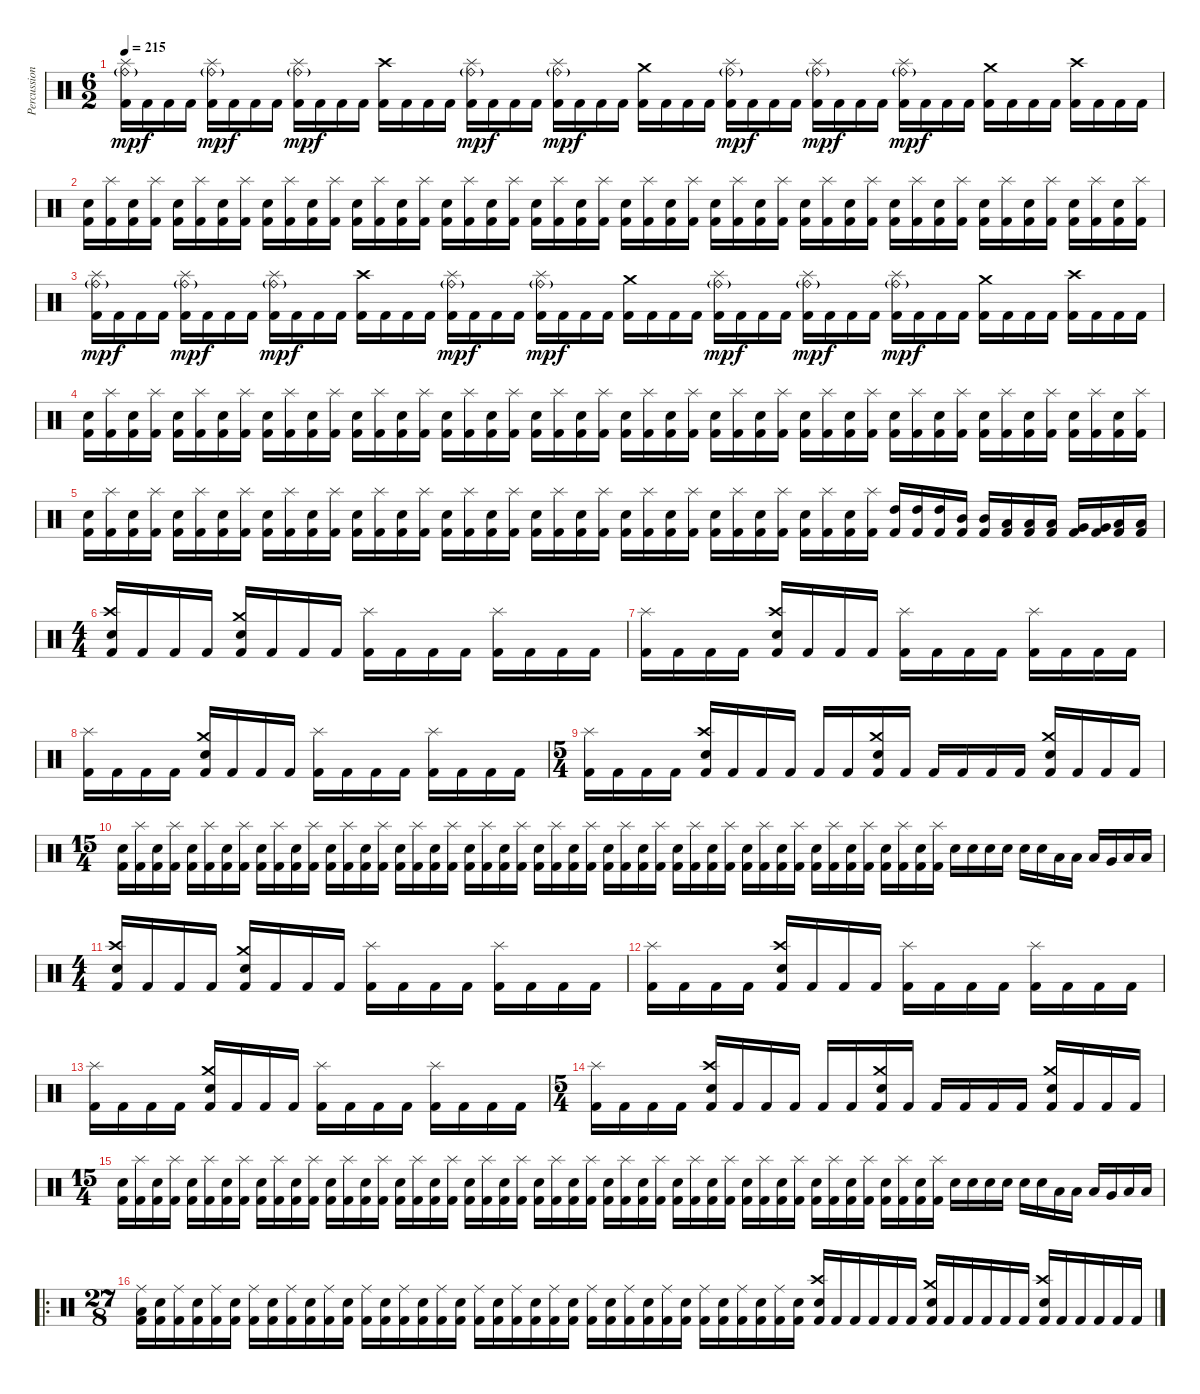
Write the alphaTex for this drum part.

\track ("Percussions" "Percussion") {instrument percussion}
\staff {score}
\articulation defaults
\ts (6 2)
\tempo 215
\clef neutral
\ks c
("Splash (hit)" "Ride (bell)"{g} "Kick (hit) 2").16{dy mp} "Kick (hit) 2".16{dy f} "Kick (hit) 2".16 "Kick (hit) 2".16 ("Splash (hit)" "Ride (bell)"{g} "Kick (hit) 2").16{dy mp} "Kick (hit) 2".16{dy f} "Kick (hit) 2".16 "Kick (hit) 2".16 ("Splash (hit)" "Ride (bell)"{g} "Kick (hit) 2").16{dy mp} "Kick (hit) 2".16{dy f} "Kick (hit) 2".16 "Kick (hit) 2".16 ("Crash high (hit)" "Kick (hit) 2").16 "Kick (hit) 2".16 "Kick (hit) 2".16 "Kick (hit) 2".16 ("Splash (hit)" "Ride (bell)"{g} "Kick (hit) 2").16{dy mp} "Kick (hit) 2".16{dy f} "Kick (hit) 2".16 "Kick (hit) 2".16 ("Splash (hit)" "Ride (bell)"{g} "Kick (hit) 2").16{dy mp} "Kick (hit) 2".16{dy f} "Kick (hit) 2".16 "Kick (hit) 2".16 ("Crash medium (hit)" "Kick (hit) 2").16 "Kick (hit) 2".16 "Kick (hit) 2".16 "Kick (hit) 2".16 ("Splash (hit)" "Ride (bell)"{g} "Kick (hit) 2").16{dy mp} "Kick (hit) 2".16{dy f} "Kick (hit) 2".16 "Kick (hit) 2".16 ("Splash (hit)" "Ride (bell)"{g} "Kick (hit) 2").16{dy mp} "Kick (hit) 2".16{dy f} "Kick (hit) 2".16 "Kick (hit) 2".16 ("Splash (hit)" "Ride (bell)"{g} "Kick (hit) 2").16{dy mp} "Kick (hit) 2".16{dy f} "Kick (hit) 2".16 "Kick (hit) 2".16 ("Crash medium (hit)" "Kick (hit) 2").16 "Kick (hit) 2".16 "Kick (hit) 2".16 "Kick (hit) 2".16 ("Crash high (hit)" "Kick (hit) 2").16 "Kick (hit) 2".16 "Kick (hit) 2".16 "Kick (hit) 2".16 |
("Electric Snare (hit)" "Kick (hit) 2").16 ("Splash (hit)" "Kick (hit) 2").16 ("Electric Snare (hit)" "Kick (hit) 2").16 ("Splash (hit)" "Kick (hit) 2").16 ("Electric Snare (hit)" "Kick (hit) 2").16 ("Splash (hit)" "Kick (hit) 2").16 ("Electric Snare (hit)" "Kick (hit) 2").16 ("Splash (hit)" "Kick (hit) 2").16 ("Electric Snare (hit)" "Kick (hit) 2").16 ("Splash (hit)" "Kick (hit) 2").16 ("Electric Snare (hit)" "Kick (hit) 2").16 ("Splash (hit)" "Kick (hit) 2").16 ("Electric Snare (hit)" "Kick (hit) 2").16 ("Splash (hit)" "Kick (hit) 2").16 ("Electric Snare (hit)" "Kick (hit) 2").16 ("Splash (hit)" "Kick (hit) 2").16 ("Electric Snare (hit)" "Kick (hit) 2").16 ("Splash (hit)" "Kick (hit) 2").16 ("Electric Snare (hit)" "Kick (hit) 2").16 ("Splash (hit)" "Kick (hit) 2").16 ("Electric Snare (hit)" "Kick (hit) 2").16 ("Splash (hit)" "Kick (hit) 2").16 ("Electric Snare (hit)" "Kick (hit) 2").16 ("Splash (hit)" "Kick (hit) 2").16 ("Electric Snare (hit)" "Kick (hit) 2").16 ("Splash (hit)" "Kick (hit) 2").16 ("Electric Snare (hit)" "Kick (hit) 2").16 ("Splash (hit)" "Kick (hit) 2").16 ("Electric Snare (hit)" "Kick (hit) 2").16 ("Splash (hit)" "Kick (hit) 2").16 ("Electric Snare (hit)" "Kick (hit) 2").16 ("Splash (hit)" "Kick (hit) 2").16 ("Electric Snare (hit)" "Kick (hit) 2").16 ("Splash (hit)" "Kick (hit) 2").16 ("Electric Snare (hit)" "Kick (hit) 2").16 ("Splash (hit)" "Kick (hit) 2").16 ("Electric Snare (hit)" "Kick (hit) 2").16 ("Splash (hit)" "Kick (hit) 2").16 ("Electric Snare (hit)" "Kick (hit) 2").16 ("Splash (hit)" "Kick (hit) 2").16 ("Electric Snare (hit)" "Kick (hit) 2").16 ("Splash (hit)" "Kick (hit) 2").16 ("Electric Snare (hit)" "Kick (hit) 2").16 ("Splash (hit)" "Kick (hit) 2").16 ("Electric Snare (hit)" "Kick (hit) 2").16 ("Splash (hit)" "Kick (hit) 2").16 ("Electric Snare (hit)" "Kick (hit) 2").16 ("Splash (hit)" "Kick (hit) 2").16 |
("Splash (hit)" "Ride (bell)"{g} "Kick (hit) 2").16{dy mp} "Kick (hit) 2".16{dy f} "Kick (hit) 2".16 "Kick (hit) 2".16 ("Splash (hit)" "Ride (bell)"{g} "Kick (hit) 2").16{dy mp} "Kick (hit) 2".16{dy f} "Kick (hit) 2".16 "Kick (hit) 2".16 ("Splash (hit)" "Ride (bell)"{g} "Kick (hit) 2").16{dy mp} "Kick (hit) 2".16{dy f} "Kick (hit) 2".16 "Kick (hit) 2".16 ("Crash high (hit)" "Kick (hit) 2").16 "Kick (hit) 2".16 "Kick (hit) 2".16 "Kick (hit) 2".16 ("Splash (hit)" "Ride (bell)"{g} "Kick (hit) 2").16{dy mp} "Kick (hit) 2".16{dy f} "Kick (hit) 2".16 "Kick (hit) 2".16 ("Splash (hit)" "Ride (bell)"{g} "Kick (hit) 2").16{dy mp} "Kick (hit) 2".16{dy f} "Kick (hit) 2".16 "Kick (hit) 2".16 ("Crash medium (hit)" "Kick (hit) 2").16 "Kick (hit) 2".16 "Kick (hit) 2".16 "Kick (hit) 2".16 ("Splash (hit)" "Ride (bell)"{g} "Kick (hit) 2").16{dy mp} "Kick (hit) 2".16{dy f} "Kick (hit) 2".16 "Kick (hit) 2".16 ("Splash (hit)" "Ride (bell)"{g} "Kick (hit) 2").16{dy mp} "Kick (hit) 2".16{dy f} "Kick (hit) 2".16 "Kick (hit) 2".16 ("Splash (hit)" "Ride (bell)"{g} "Kick (hit) 2").16{dy mp} "Kick (hit) 2".16{dy f} "Kick (hit) 2".16 "Kick (hit) 2".16 ("Crash medium (hit)" "Kick (hit) 2").16 "Kick (hit) 2".16 "Kick (hit) 2".16 "Kick (hit) 2".16 ("Crash high (hit)" "Kick (hit) 2").16 "Kick (hit) 2".16 "Kick (hit) 2".16 "Kick (hit) 2".16 |
("Electric Snare (hit)" "Kick (hit) 2").16 ("Splash (hit)" "Kick (hit) 2").16 ("Electric Snare (hit)" "Kick (hit) 2").16 ("Splash (hit)" "Kick (hit) 2").16 ("Electric Snare (hit)" "Kick (hit) 2").16 ("Splash (hit)" "Kick (hit) 2").16 ("Electric Snare (hit)" "Kick (hit) 2").16 ("Splash (hit)" "Kick (hit) 2").16 ("Electric Snare (hit)" "Kick (hit) 2").16 ("Splash (hit)" "Kick (hit) 2").16 ("Electric Snare (hit)" "Kick (hit) 2").16 ("Splash (hit)" "Kick (hit) 2").16 ("Electric Snare (hit)" "Kick (hit) 2").16 ("Splash (hit)" "Kick (hit) 2").16 ("Electric Snare (hit)" "Kick (hit) 2").16 ("Splash (hit)" "Kick (hit) 2").16 ("Electric Snare (hit)" "Kick (hit) 2").16 ("Splash (hit)" "Kick (hit) 2").16 ("Electric Snare (hit)" "Kick (hit) 2").16 ("Splash (hit)" "Kick (hit) 2").16 ("Electric Snare (hit)" "Kick (hit) 2").16 ("Splash (hit)" "Kick (hit) 2").16 ("Electric Snare (hit)" "Kick (hit) 2").16 ("Splash (hit)" "Kick (hit) 2").16 ("Electric Snare (hit)" "Kick (hit) 2").16 ("Splash (hit)" "Kick (hit) 2").16 ("Electric Snare (hit)" "Kick (hit) 2").16 ("Splash (hit)" "Kick (hit) 2").16 ("Electric Snare (hit)" "Kick (hit) 2").16 ("Splash (hit)" "Kick (hit) 2").16 ("Electric Snare (hit)" "Kick (hit) 2").16 ("Splash (hit)" "Kick (hit) 2").16 ("Electric Snare (hit)" "Kick (hit) 2").16 ("Splash (hit)" "Kick (hit) 2").16 ("Electric Snare (hit)" "Kick (hit) 2").16 ("Splash (hit)" "Kick (hit) 2").16 ("Electric Snare (hit)" "Kick (hit) 2").16 ("Splash (hit)" "Kick (hit) 2").16 ("Electric Snare (hit)" "Kick (hit) 2").16 ("Splash (hit)" "Kick (hit) 2").16 ("Electric Snare (hit)" "Kick (hit) 2").16 ("Splash (hit)" "Kick (hit) 2").16 ("Electric Snare (hit)" "Kick (hit) 2").16 ("Splash (hit)" "Kick (hit) 2").16 ("Electric Snare (hit)" "Kick (hit) 2").16 ("Splash (hit)" "Kick (hit) 2").16 ("Electric Snare (hit)" "Kick (hit) 2").16 ("Splash (hit)" "Kick (hit) 2").16 |
("Electric Snare (hit)" "Kick (hit) 2").16 ("Splash (hit)" "Kick (hit) 2").16 ("Electric Snare (hit)" "Kick (hit) 2").16 ("Splash (hit)" "Kick (hit) 2").16 ("Electric Snare (hit)" "Kick (hit) 2").16 ("Splash (hit)" "Kick (hit) 2").16 ("Electric Snare (hit)" "Kick (hit) 2").16 ("Splash (hit)" "Kick (hit) 2").16 ("Electric Snare (hit)" "Kick (hit) 2").16 ("Splash (hit)" "Kick (hit) 2").16 ("Electric Snare (hit)" "Kick (hit) 2").16 ("Splash (hit)" "Kick (hit) 2").16 ("Electric Snare (hit)" "Kick (hit) 2").16 ("Splash (hit)" "Kick (hit) 2").16 ("Electric Snare (hit)" "Kick (hit) 2").16 ("Splash (hit)" "Kick (hit) 2").16 ("Electric Snare (hit)" "Kick (hit) 2").16 ("Splash (hit)" "Kick (hit) 2").16 ("Electric Snare (hit)" "Kick (hit) 2").16 ("Splash (hit)" "Kick (hit) 2").16 ("Electric Snare (hit)" "Kick (hit) 2").16 ("Splash (hit)" "Kick (hit) 2").16 ("Electric Snare (hit)" "Kick (hit) 2").16 ("Splash (hit)" "Kick (hit) 2").16 ("Electric Snare (hit)" "Kick (hit) 2").16 ("Splash (hit)" "Kick (hit) 2").16 ("Electric Snare (hit)" "Kick (hit) 2").16 ("Splash (hit)" "Kick (hit) 2").16 ("Electric Snare (hit)" "Kick (hit) 2").16 ("Splash (hit)" "Kick (hit) 2").16 ("Electric Snare (hit)" "Kick (hit) 2").16 ("Splash (hit)" "Kick (hit) 2").16 ("Electric Snare (hit)" "Kick (hit) 2").16 ("Splash (hit)" "Kick (hit) 2").16 ("Electric Snare (hit)" "Kick (hit) 2").16 ("Splash (hit)" "Kick (hit) 2").16 ("High Tom (hit)" "Kick (hit) 2").16 ("High Tom (hit)" "Kick (hit) 2").16 ("High Tom (hit)" "Kick (hit) 2").16 ("Mid Tom (hit)" "Kick (hit) 2").16 ("Mid Tom (hit)" "Kick (hit) 2").16 ("Low Tom (hit)" "Kick (hit) 2").16 ("Low Tom (hit)" "Kick (hit) 2").16 ("Low Tom (hit)" "Kick (hit) 2").16 ("Very Low Tom (hit)" "Kick (hit) 2").16 ("Very Low Tom (hit)" "Kick (hit) 2").16 ("Low Floor Tom (hit)" "Kick (hit) 2").16 ("Low Floor Tom (hit)" "Kick (hit) 2").16 |
\ts (4 4)
("Crash high (hit)" "Electric Snare (hit)" "Kick (hit) 2").16 "Kick (hit) 2".16 "Kick (hit) 2".16 "Kick (hit) 2".16 ("Crash medium (hit)" "Electric Snare (hit)" "Kick (hit) 2").16 "Kick (hit) 2".16 "Kick (hit) 2".16 "Kick (hit) 2".16 ("Splash (hit)" "Kick (hit) 2").16 "Kick (hit) 2".16 "Kick (hit) 2".16 "Kick (hit) 2".16 ("Splash (hit)" "Kick (hit) 2").16 "Kick (hit) 2".16 "Kick (hit) 2".16 "Kick (hit) 2".16 |
("Splash (hit)" "Kick (hit) 2").16 "Kick (hit) 2".16 "Kick (hit) 2".16 "Kick (hit) 2".16 ("Crash high (hit)" "Electric Snare (hit)" "Kick (hit) 2").16 "Kick (hit) 2".16 "Kick (hit) 2".16 "Kick (hit) 2".16 ("Splash (hit)" "Kick (hit) 2").16 "Kick (hit) 2".16 "Kick (hit) 2".16 "Kick (hit) 2".16 ("Splash (hit)" "Kick (hit) 2").16 "Kick (hit) 2".16 "Kick (hit) 2".16 "Kick (hit) 2".16 |
("Splash (hit)" "Kick (hit) 2").16 "Kick (hit) 2".16 "Kick (hit) 2".16 "Kick (hit) 2".16 ("Crash medium (hit)" "Electric Snare (hit)" "Kick (hit) 2").16 "Kick (hit) 2".16 "Kick (hit) 2".16 "Kick (hit) 2".16 ("Splash (hit)" "Kick (hit) 2").16 "Kick (hit) 2".16 "Kick (hit) 2".16 "Kick (hit) 2".16 ("Splash (hit)" "Kick (hit) 2").16 "Kick (hit) 2".16 "Kick (hit) 2".16 "Kick (hit) 2".16 |
\ts (5 4)
("Splash (hit)" "Kick (hit) 2").16 "Kick (hit) 2".16 "Kick (hit) 2".16 "Kick (hit) 2".16 ("Crash high (hit)" "Electric Snare (hit)" "Kick (hit) 2").16 "Kick (hit) 2".16 "Kick (hit) 2".16 "Kick (hit) 2".16 "Kick (hit) 2".16 "Kick (hit) 2".16 ("Crash medium (hit)" "Electric Snare (hit)" "Kick (hit) 2").16 "Kick (hit) 2".16 "Kick (hit) 2".16 "Kick (hit) 2".16 "Kick (hit) 2".16 "Kick (hit) 2".16 ("Crash medium (hit)" "Electric Snare (hit)" "Kick (hit) 2").16 "Kick (hit) 2".16 "Kick (hit) 2".16 "Kick (hit) 2".16 |
\ts (15 4)
("Electric Snare (hit)" "Kick (hit) 2").16 ("Splash (hit)" "Kick (hit) 2").16 ("Electric Snare (hit)" "Kick (hit) 2").16 ("Splash (hit)" "Kick (hit) 2").16 ("Electric Snare (hit)" "Kick (hit) 2").16 ("Splash (hit)" "Kick (hit) 2").16 ("Electric Snare (hit)" "Kick (hit) 2").16 ("Splash (hit)" "Kick (hit) 2").16 ("Electric Snare (hit)" "Kick (hit) 2").16 ("Splash (hit)" "Kick (hit) 2").16 ("Electric Snare (hit)" "Kick (hit) 2").16 ("Splash (hit)" "Kick (hit) 2").16 ("Electric Snare (hit)" "Kick (hit) 2").16 ("Splash (hit)" "Kick (hit) 2").16 ("Electric Snare (hit)" "Kick (hit) 2").16 ("Splash (hit)" "Kick (hit) 2").16 ("Electric Snare (hit)" "Kick (hit) 2").16 ("Splash (hit)" "Kick (hit) 2").16 ("Electric Snare (hit)" "Kick (hit) 2").16 ("Splash (hit)" "Kick (hit) 2").16 ("Electric Snare (hit)" "Kick (hit) 2").16 ("Splash (hit)" "Kick (hit) 2").16 ("Electric Snare (hit)" "Kick (hit) 2").16 ("Splash (hit)" "Kick (hit) 2").16 ("Electric Snare (hit)" "Kick (hit) 2").16 ("Splash (hit)" "Kick (hit) 2").16 ("Electric Snare (hit)" "Kick (hit) 2").16 ("Splash (hit)" "Kick (hit) 2").16 ("Electric Snare (hit)" "Kick (hit) 2").16 ("Splash (hit)" "Kick (hit) 2").16 ("Electric Snare (hit)" "Kick (hit) 2").16 ("Splash (hit)" "Kick (hit) 2").16 ("Electric Snare (hit)" "Kick (hit) 2").16 ("Splash (hit)" "Kick (hit) 2").16 ("Electric Snare (hit)" "Kick (hit) 2").16 ("Splash (hit)" "Kick (hit) 2").16 ("Electric Snare (hit)" "Kick (hit) 2").16 ("Splash (hit)" "Kick (hit) 2").16 ("Electric Snare (hit)" "Kick (hit) 2").16 ("Splash (hit)" "Kick (hit) 2").16 ("Electric Snare (hit)" "Kick (hit) 2").16 ("Splash (hit)" "Kick (hit) 2").16 ("Electric Snare (hit)" "Kick (hit) 2").16 ("Splash (hit)" "Kick (hit) 2").16 ("Electric Snare (hit)" "Kick (hit) 2").16 ("Splash (hit)" "Kick (hit) 2").16 ("Electric Snare (hit)" "Kick (hit) 2").16 ("Splash (hit)" "Kick (hit) 2").16 "Electric Snare (hit)".16 "Electric Snare (hit)".16 "Electric Snare (hit)".16 "Electric Snare (hit)".16 "Electric Snare (hit)".16 "Electric Snare (hit)".16 "Low Tom (hit)".16 "Low Tom (hit)".16 "Low Tom (hit)".16 "Very Low Tom (hit)".16 "Low Floor Tom (hit)".16 "Low Floor Tom (hit)".16 |
\ts (4 4)
("Crash high (hit)" "Electric Snare (hit)" "Kick (hit) 2").16 "Kick (hit) 2".16 "Kick (hit) 2".16 "Kick (hit) 2".16 ("Crash medium (hit)" "Electric Snare (hit)" "Kick (hit) 2").16 "Kick (hit) 2".16 "Kick (hit) 2".16 "Kick (hit) 2".16 ("Splash (hit)" "Kick (hit) 2").16 "Kick (hit) 2".16 "Kick (hit) 2".16 "Kick (hit) 2".16 ("Splash (hit)" "Kick (hit) 2").16 "Kick (hit) 2".16 "Kick (hit) 2".16 "Kick (hit) 2".16 |
("Splash (hit)" "Kick (hit) 2").16 "Kick (hit) 2".16 "Kick (hit) 2".16 "Kick (hit) 2".16 ("Crash high (hit)" "Electric Snare (hit)" "Kick (hit) 2").16 "Kick (hit) 2".16 "Kick (hit) 2".16 "Kick (hit) 2".16 ("Splash (hit)" "Kick (hit) 2").16 "Kick (hit) 2".16 "Kick (hit) 2".16 "Kick (hit) 2".16 ("Splash (hit)" "Kick (hit) 2").16 "Kick (hit) 2".16 "Kick (hit) 2".16 "Kick (hit) 2".16 |
("Splash (hit)" "Kick (hit) 2").16 "Kick (hit) 2".16 "Kick (hit) 2".16 "Kick (hit) 2".16 ("Crash medium (hit)" "Electric Snare (hit)" "Kick (hit) 2").16 "Kick (hit) 2".16 "Kick (hit) 2".16 "Kick (hit) 2".16 ("Splash (hit)" "Kick (hit) 2").16 "Kick (hit) 2".16 "Kick (hit) 2".16 "Kick (hit) 2".16 ("Splash (hit)" "Kick (hit) 2").16 "Kick (hit) 2".16 "Kick (hit) 2".16 "Kick (hit) 2".16 |
\ts (5 4)
("Splash (hit)" "Kick (hit) 2").16 "Kick (hit) 2".16 "Kick (hit) 2".16 "Kick (hit) 2".16 ("Crash high (hit)" "Electric Snare (hit)" "Kick (hit) 2").16 "Kick (hit) 2".16 "Kick (hit) 2".16 "Kick (hit) 2".16 "Kick (hit) 2".16 "Kick (hit) 2".16 ("Crash medium (hit)" "Electric Snare (hit)" "Kick (hit) 2").16 "Kick (hit) 2".16 "Kick (hit) 2".16 "Kick (hit) 2".16 "Kick (hit) 2".16 "Kick (hit) 2".16 ("Crash medium (hit)" "Electric Snare (hit)" "Kick (hit) 2").16 "Kick (hit) 2".16 "Kick (hit) 2".16 "Kick (hit) 2".16 |
\ts (15 4)
("Electric Snare (hit)" "Kick (hit) 2").16 ("Splash (hit)" "Kick (hit) 2").16 ("Electric Snare (hit)" "Kick (hit) 2").16 ("Splash (hit)" "Kick (hit) 2").16 ("Electric Snare (hit)" "Kick (hit) 2").16 ("Splash (hit)" "Kick (hit) 2").16 ("Electric Snare (hit)" "Kick (hit) 2").16 ("Splash (hit)" "Kick (hit) 2").16 ("Electric Snare (hit)" "Kick (hit) 2").16 ("Splash (hit)" "Kick (hit) 2").16 ("Electric Snare (hit)" "Kick (hit) 2").16 ("Splash (hit)" "Kick (hit) 2").16 ("Electric Snare (hit)" "Kick (hit) 2").16 ("Splash (hit)" "Kick (hit) 2").16 ("Electric Snare (hit)" "Kick (hit) 2").16 ("Splash (hit)" "Kick (hit) 2").16 ("Electric Snare (hit)" "Kick (hit) 2").16 ("Splash (hit)" "Kick (hit) 2").16 ("Electric Snare (hit)" "Kick (hit) 2").16 ("Splash (hit)" "Kick (hit) 2").16 ("Electric Snare (hit)" "Kick (hit) 2").16 ("Splash (hit)" "Kick (hit) 2").16 ("Electric Snare (hit)" "Kick (hit) 2").16 ("Splash (hit)" "Kick (hit) 2").16 ("Electric Snare (hit)" "Kick (hit) 2").16 ("Splash (hit)" "Kick (hit) 2").16 ("Electric Snare (hit)" "Kick (hit) 2").16 ("Splash (hit)" "Kick (hit) 2").16 ("Electric Snare (hit)" "Kick (hit) 2").16 ("Splash (hit)" "Kick (hit) 2").16 ("Electric Snare (hit)" "Kick (hit) 2").16 ("Splash (hit)" "Kick (hit) 2").16 ("Electric Snare (hit)" "Kick (hit) 2").16 ("Splash (hit)" "Kick (hit) 2").16 ("Electric Snare (hit)" "Kick (hit) 2").16 ("Splash (hit)" "Kick (hit) 2").16 ("Electric Snare (hit)" "Kick (hit) 2").16 ("Splash (hit)" "Kick (hit) 2").16 ("Electric Snare (hit)" "Kick (hit) 2").16 ("Splash (hit)" "Kick (hit) 2").16 ("Electric Snare (hit)" "Kick (hit) 2").16 ("Splash (hit)" "Kick (hit) 2").16 ("Electric Snare (hit)" "Kick (hit) 2").16 ("Splash (hit)" "Kick (hit) 2").16 ("Electric Snare (hit)" "Kick (hit) 2").16 ("Splash (hit)" "Kick (hit) 2").16 ("Electric Snare (hit)" "Kick (hit) 2").16 ("Splash (hit)" "Kick (hit) 2").16 "Electric Snare (hit)".16 "Electric Snare (hit)".16 "Electric Snare (hit)".16 "Electric Snare (hit)".16 "Electric Snare (hit)".16 "Electric Snare (hit)".16 "Low Tom (hit)".16 "Low Tom (hit)".16 "Low Tom (hit)".16 "Very Low Tom (hit)".16 "Low Floor Tom (hit)".16 "Low Floor Tom (hit)".16 |
\ro
\ts (27 8)
("Ride (middle)" "Low Floor Tom (hit)" "Kick (hit) 2").16 ("Electric Snare (hit)" "Kick (hit) 2").16 ("Ride (middle)" "Kick (hit) 2").16 ("Electric Snare (hit)" "Kick (hit) 2").16 ("Ride (middle)" "Kick (hit) 2").16 ("Electric Snare (hit)" "Kick (hit) 2").16 ("Ride (middle)" "Kick (hit) 2").16 ("Electric Snare (hit)" "Kick (hit) 2").16 ("Ride (middle)" "Kick (hit) 2").16 ("Electric Snare (hit)" "Kick (hit) 2").16 ("Ride (middle)" "Kick (hit) 2").16 ("Electric Snare (hit)" "Kick (hit) 2").16 ("Ride (middle)" "Kick (hit) 2").16 ("Electric Snare (hit)" "Kick (hit) 2").16 ("Ride (middle)" "Kick (hit) 2").16 ("Electric Snare (hit)" "Kick (hit) 2").16 ("Ride (middle)" "Kick (hit) 2").16 ("Electric Snare (hit)" "Kick (hit) 2").16 ("Ride (middle)" "Kick (hit) 2").16 ("Electric Snare (hit)" "Kick (hit) 2").16 ("Ride (middle)" "Kick (hit) 2").16 ("Electric Snare (hit)" "Kick (hit) 2").16 ("Ride (middle)" "Kick (hit) 2").16 ("Electric Snare (hit)" "Kick (hit) 2").16 ("Ride (middle)" "Kick (hit) 2").16 ("Electric Snare (hit)" "Kick (hit) 2").16 ("Ride (middle)" "Kick (hit) 2").16 ("Electric Snare (hit)" "Kick (hit) 2").16 ("Ride (middle)" "Kick (hit) 2").16 ("Electric Snare (hit)" "Kick (hit) 2").16 ("Ride (middle)" "Kick (hit) 2").16 ("Electric Snare (hit)" "Kick (hit) 2").16 ("Ride (middle)" "Kick (hit) 2").16 ("Electric Snare (hit)" "Kick (hit) 2").16 ("Ride (middle)" "Kick (hit) 2").16 ("Electric Snare (hit)" "Kick (hit) 2").16 ("Crash high (hit)" "Electric Snare (hit)" "Kick (hit) 2").16 "Kick (hit) 2".16 "Kick (hit) 2".16 "Kick (hit) 2".16 "Kick (hit) 2".16 "Kick (hit) 2".16 ("Crash medium (hit)" "Electric Snare (hit)" "Kick (hit) 2").16 "Kick (hit) 2".16 "Kick (hit) 2".16 "Kick (hit) 2".16 "Kick (hit) 2".16 "Kick (hit) 2".16 ("Crash high (hit)" "Electric Snare (hit)" "Kick (hit) 2").16 "Kick (hit) 2".16 "Kick (hit) 2".16 "Kick (hit) 2".16 "Kick (hit) 2".16 "Kick (hit) 2".16
